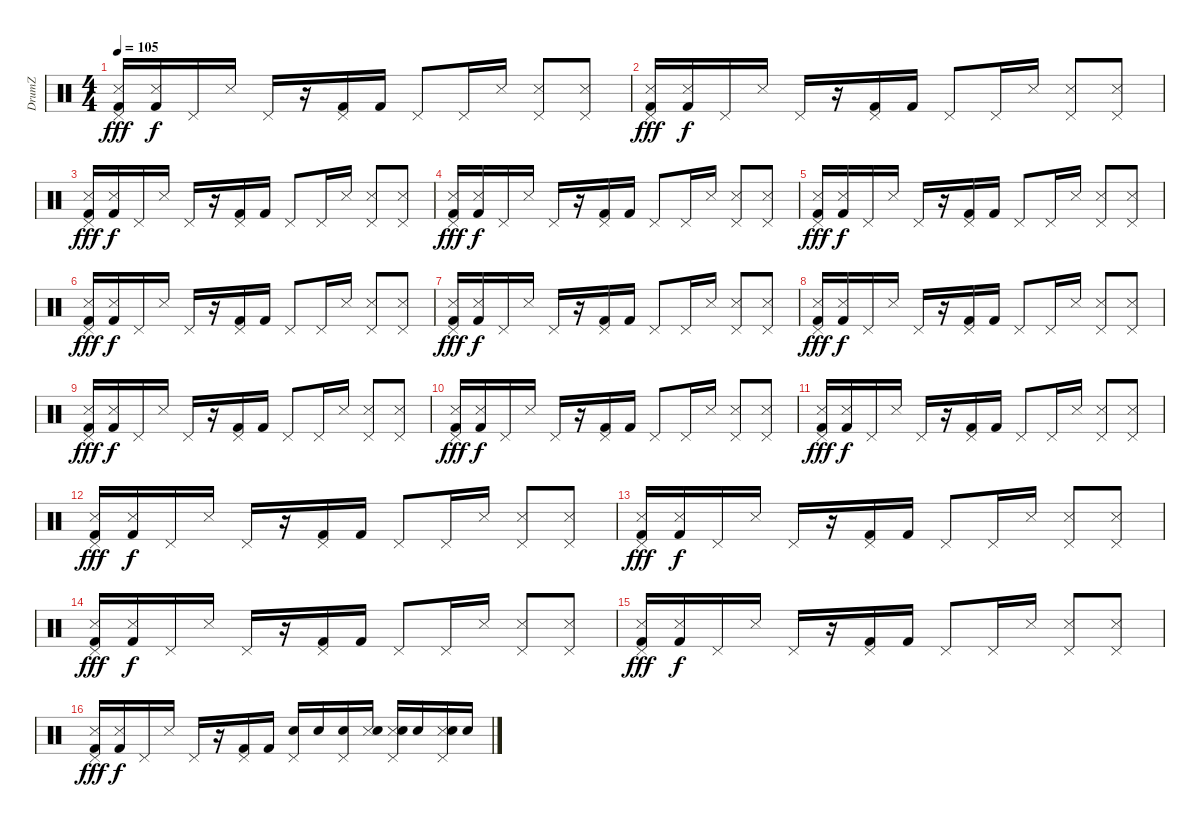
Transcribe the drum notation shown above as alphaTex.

\track ("DrumZ" "DrumZ") {instrument percussion}
\staff {score}
\articulation defaults
\ts (4 4)
\tempo 105
\clef neutral
\ks c
("Pedal Hi-Hat (hit)" "Metronome (hit)" "Kick (hit) 2").16{dy fff} ("Metronome (hit)" "Kick (hit) 2").16{dy f} "Pedal Hi-Hat (hit)".16 "Metronome (hit)".16 "Pedal Hi-Hat (hit)".16 r.16 ("Pedal Hi-Hat (hit)" "Kick (hit) 2").16 "Kick (hit) 2".16 "Pedal Hi-Hat (hit)".8 "Pedal Hi-Hat (hit)".16 "Metronome (hit)".16 ("Pedal Hi-Hat (hit)" "Metronome (hit)").8 ("Pedal Hi-Hat (hit)" "Metronome (hit)").8 |
("Pedal Hi-Hat (hit)" "Metronome (hit)" "Kick (hit) 2").16{dy fff} ("Metronome (hit)" "Kick (hit) 2").16{dy f} "Pedal Hi-Hat (hit)".16 "Metronome (hit)".16 "Pedal Hi-Hat (hit)".16 r.16 ("Pedal Hi-Hat (hit)" "Kick (hit) 2").16 "Kick (hit) 2".16 "Pedal Hi-Hat (hit)".8 "Pedal Hi-Hat (hit)".16 "Metronome (hit)".16 ("Pedal Hi-Hat (hit)" "Metronome (hit)").8 ("Pedal Hi-Hat (hit)" "Metronome (hit)").8 |
("Pedal Hi-Hat (hit)" "Metronome (hit)" "Kick (hit) 2").16{dy fff} ("Metronome (hit)" "Kick (hit) 2").16{dy f} "Pedal Hi-Hat (hit)".16 "Metronome (hit)".16 "Pedal Hi-Hat (hit)".16 r.16 ("Pedal Hi-Hat (hit)" "Kick (hit) 2").16 "Kick (hit) 2".16 "Pedal Hi-Hat (hit)".8 "Pedal Hi-Hat (hit)".16 "Metronome (hit)".16 ("Pedal Hi-Hat (hit)" "Metronome (hit)").8 ("Pedal Hi-Hat (hit)" "Metronome (hit)").8 |
("Pedal Hi-Hat (hit)" "Metronome (hit)" "Kick (hit) 2").16{dy fff} ("Metronome (hit)" "Kick (hit) 2").16{dy f} "Pedal Hi-Hat (hit)".16 "Metronome (hit)".16 "Pedal Hi-Hat (hit)".16 r.16 ("Pedal Hi-Hat (hit)" "Kick (hit) 2").16 "Kick (hit) 2".16 "Pedal Hi-Hat (hit)".8 "Pedal Hi-Hat (hit)".16 "Metronome (hit)".16 ("Pedal Hi-Hat (hit)" "Metronome (hit)").8 ("Pedal Hi-Hat (hit)" "Metronome (hit)").8 |
("Pedal Hi-Hat (hit)" "Metronome (hit)" "Kick (hit) 2").16{dy fff} ("Metronome (hit)" "Kick (hit) 2").16{dy f} "Pedal Hi-Hat (hit)".16 "Metronome (hit)".16 "Pedal Hi-Hat (hit)".16 r.16 ("Pedal Hi-Hat (hit)" "Kick (hit) 2").16 "Kick (hit) 2".16 "Pedal Hi-Hat (hit)".8 "Pedal Hi-Hat (hit)".16 "Metronome (hit)".16 ("Pedal Hi-Hat (hit)" "Metronome (hit)").8 ("Pedal Hi-Hat (hit)" "Metronome (hit)").8 |
("Pedal Hi-Hat (hit)" "Metronome (hit)" "Kick (hit) 2").16{dy fff} ("Metronome (hit)" "Kick (hit) 2").16{dy f} "Pedal Hi-Hat (hit)".16 "Metronome (hit)".16 "Pedal Hi-Hat (hit)".16 r.16 ("Pedal Hi-Hat (hit)" "Kick (hit) 2").16 "Kick (hit) 2".16 "Pedal Hi-Hat (hit)".8 "Pedal Hi-Hat (hit)".16 "Metronome (hit)".16 ("Pedal Hi-Hat (hit)" "Metronome (hit)").8 ("Pedal Hi-Hat (hit)" "Metronome (hit)").8 |
("Pedal Hi-Hat (hit)" "Metronome (hit)" "Kick (hit) 2").16{dy fff} ("Metronome (hit)" "Kick (hit) 2").16{dy f} "Pedal Hi-Hat (hit)".16 "Metronome (hit)".16 "Pedal Hi-Hat (hit)".16 r.16 ("Pedal Hi-Hat (hit)" "Kick (hit) 2").16 "Kick (hit) 2".16 "Pedal Hi-Hat (hit)".8 "Pedal Hi-Hat (hit)".16 "Metronome (hit)".16 ("Pedal Hi-Hat (hit)" "Metronome (hit)").8 ("Pedal Hi-Hat (hit)" "Metronome (hit)").8 |
("Pedal Hi-Hat (hit)" "Metronome (hit)" "Kick (hit) 2").16{dy fff} ("Metronome (hit)" "Kick (hit) 2").16{dy f} "Pedal Hi-Hat (hit)".16 "Metronome (hit)".16 "Pedal Hi-Hat (hit)".16 r.16 ("Pedal Hi-Hat (hit)" "Kick (hit) 2").16 "Kick (hit) 2".16 "Pedal Hi-Hat (hit)".8 "Pedal Hi-Hat (hit)".16 "Metronome (hit)".16 ("Pedal Hi-Hat (hit)" "Metronome (hit)").8 ("Pedal Hi-Hat (hit)" "Metronome (hit)").8 |
("Pedal Hi-Hat (hit)" "Metronome (hit)" "Kick (hit) 2").16{dy fff} ("Metronome (hit)" "Kick (hit) 2").16{dy f} "Pedal Hi-Hat (hit)".16 "Metronome (hit)".16 "Pedal Hi-Hat (hit)".16 r.16 ("Pedal Hi-Hat (hit)" "Kick (hit) 2").16 "Kick (hit) 2".16 "Pedal Hi-Hat (hit)".8 "Pedal Hi-Hat (hit)".16 "Metronome (hit)".16 ("Pedal Hi-Hat (hit)" "Metronome (hit)").8 ("Pedal Hi-Hat (hit)" "Metronome (hit)").8 |
("Pedal Hi-Hat (hit)" "Metronome (hit)" "Kick (hit) 2").16{dy fff} ("Metronome (hit)" "Kick (hit) 2").16{dy f} "Pedal Hi-Hat (hit)".16 "Metronome (hit)".16 "Pedal Hi-Hat (hit)".16 r.16 ("Pedal Hi-Hat (hit)" "Kick (hit) 2").16 "Kick (hit) 2".16 "Pedal Hi-Hat (hit)".8 "Pedal Hi-Hat (hit)".16 "Metronome (hit)".16 ("Pedal Hi-Hat (hit)" "Metronome (hit)").8 ("Pedal Hi-Hat (hit)" "Metronome (hit)").8 |
("Pedal Hi-Hat (hit)" "Metronome (hit)" "Kick (hit) 2").16{dy fff} ("Metronome (hit)" "Kick (hit) 2").16{dy f} "Pedal Hi-Hat (hit)".16 "Metronome (hit)".16 "Pedal Hi-Hat (hit)".16 r.16 ("Pedal Hi-Hat (hit)" "Kick (hit) 2").16 "Kick (hit) 2".16 "Pedal Hi-Hat (hit)".8 "Pedal Hi-Hat (hit)".16 "Metronome (hit)".16 ("Pedal Hi-Hat (hit)" "Metronome (hit)").8 ("Pedal Hi-Hat (hit)" "Metronome (hit)").8 |
("Pedal Hi-Hat (hit)" "Metronome (hit)" "Kick (hit) 2").16{dy fff} ("Metronome (hit)" "Kick (hit) 2").16{dy f} "Pedal Hi-Hat (hit)".16 "Metronome (hit)".16 "Pedal Hi-Hat (hit)".16 r.16 ("Pedal Hi-Hat (hit)" "Kick (hit) 2").16 "Kick (hit) 2".16 "Pedal Hi-Hat (hit)".8 "Pedal Hi-Hat (hit)".16 "Metronome (hit)".16 ("Pedal Hi-Hat (hit)" "Metronome (hit)").8 ("Pedal Hi-Hat (hit)" "Metronome (hit)").8 |
("Pedal Hi-Hat (hit)" "Metronome (hit)" "Kick (hit) 2").16{dy fff} ("Metronome (hit)" "Kick (hit) 2").16{dy f} "Pedal Hi-Hat (hit)".16 "Metronome (hit)".16 "Pedal Hi-Hat (hit)".16 r.16 ("Pedal Hi-Hat (hit)" "Kick (hit) 2").16 "Kick (hit) 2".16 "Pedal Hi-Hat (hit)".8 "Pedal Hi-Hat (hit)".16 "Metronome (hit)".16 ("Pedal Hi-Hat (hit)" "Metronome (hit)").8 ("Pedal Hi-Hat (hit)" "Metronome (hit)").8 |
("Pedal Hi-Hat (hit)" "Metronome (hit)" "Kick (hit) 2").16{dy fff} ("Metronome (hit)" "Kick (hit) 2").16{dy f} "Pedal Hi-Hat (hit)".16 "Metronome (hit)".16 "Pedal Hi-Hat (hit)".16 r.16 ("Pedal Hi-Hat (hit)" "Kick (hit) 2").16 "Kick (hit) 2".16 "Pedal Hi-Hat (hit)".8 "Pedal Hi-Hat (hit)".16 "Metronome (hit)".16 ("Pedal Hi-Hat (hit)" "Metronome (hit)").8 ("Pedal Hi-Hat (hit)" "Metronome (hit)").8 |
("Pedal Hi-Hat (hit)" "Metronome (hit)" "Kick (hit) 2").16{dy fff} ("Metronome (hit)" "Kick (hit) 2").16{dy f} "Pedal Hi-Hat (hit)".16 "Metronome (hit)".16 "Pedal Hi-Hat (hit)".16 r.16 ("Pedal Hi-Hat (hit)" "Kick (hit) 2").16 "Kick (hit) 2".16 "Pedal Hi-Hat (hit)".8 "Pedal Hi-Hat (hit)".16 "Metronome (hit)".16 ("Pedal Hi-Hat (hit)" "Metronome (hit)").8 ("Pedal Hi-Hat (hit)" "Metronome (hit)").8 |
("Pedal Hi-Hat (hit)" "Metronome (hit)" "Kick (hit) 2").16{dy fff} ("Metronome (hit)" "Kick (hit) 2").16{dy f} "Pedal Hi-Hat (hit)".16 "Metronome (hit)".16 "Pedal Hi-Hat (hit)".16 r.16 ("Pedal Hi-Hat (hit)" "Kick (hit) 2").16 "Kick (hit) 2".16 ("Pedal Hi-Hat (hit)" "Electric Snare (hit)").16 "Electric Snare (hit)".16 ("Pedal Hi-Hat (hit)" "Electric Snare (hit)").16 ("Metronome (hit)" "Electric Snare (hit)").16 ("Pedal Hi-Hat (hit)" "Metronome (hit)" "Electric Snare (hit)").16 "Electric Snare (hit)".16 ("Pedal Hi-Hat (hit)" "Metronome (hit)" "Electric Snare (hit)").16 "Electric Snare (hit)".16
